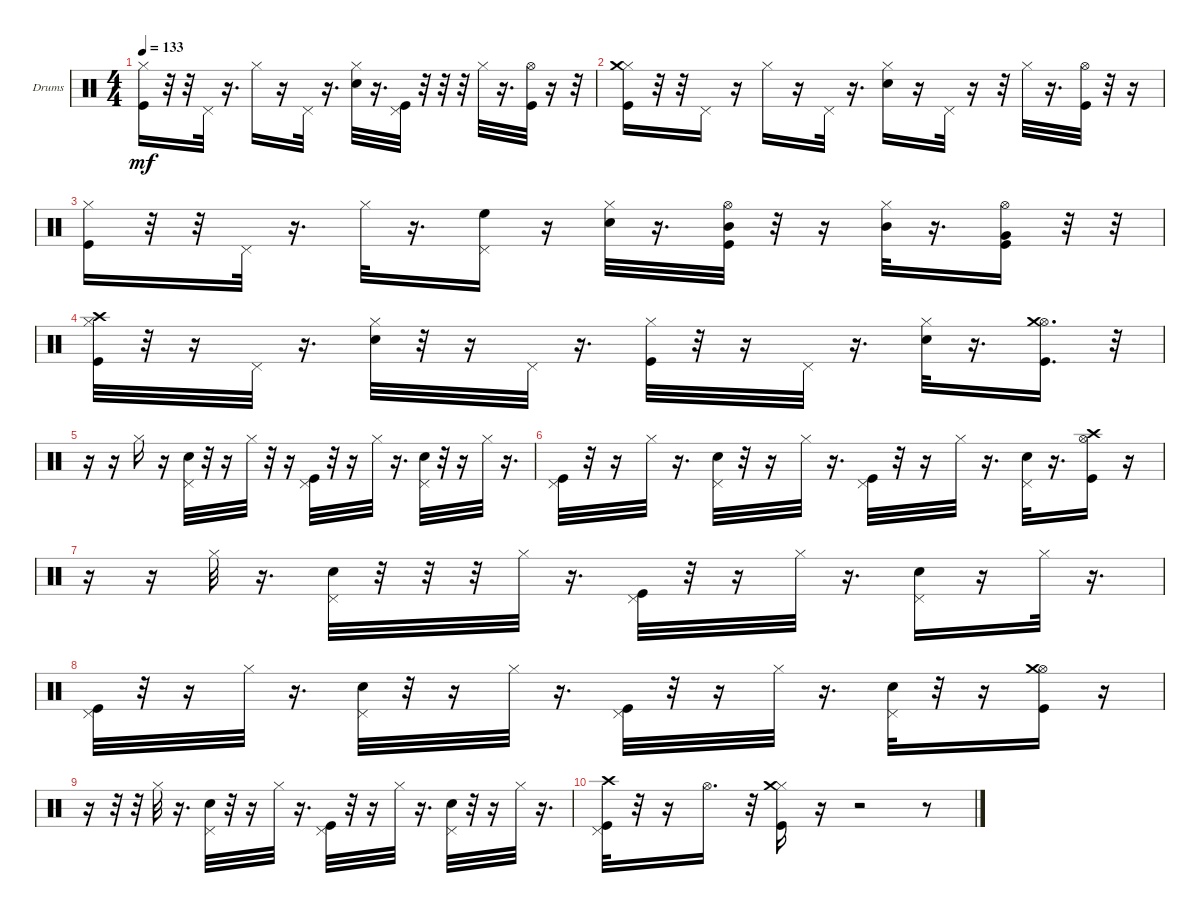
\defaultSystemsLayout 4
\bracketExtendMode groupsimilarinstruments
\firstSystemTrackNameOrientation horizontal
\otherSystemsTrackNameOrientation horizontal
\track ("Drumkit" "Drums") {instrument percussion}
\staff {score}
\articulation defaults
\ts (4 4)
\tempo 133
\clef neutral
\ks c
("Kick (hit)" "Hi-Hat (closed)").16{dy mf} r.32 r.32 "Pedal Hi-Hat (hit)".32 r.16{d} "Hi-Hat (closed)".16 r.16 "Pedal Hi-Hat (hit)".32 r.16{d} ("Snare (hit) 2" "Hi-Hat (closed)").32 r.16{d} ("Kick (hit)" "Pedal Hi-Hat (hit)").32 r.32 r.32 r.32 "Hi-Hat (closed)".32 r.16{d} ("Kick (hit)" "Hi-Hat (open)").32 r.16 r.32 |
("Kick (hit)" "Hi-Hat (closed)" "Crash medium (hit)").16 r.32 r.32 "Pedal Hi-Hat (hit)".16 r.16 "Hi-Hat (closed)".16 r.16 "Pedal Hi-Hat (hit)".32 r.16{d} ("Snare (hit) 2" "Hi-Hat (closed)").16 r.16 "Pedal Hi-Hat (hit)".32 r.16 r.32 "Hi-Hat (closed)".32 r.16{d} ("Kick (hit)" "Hi-Hat (open)").32 r.32 r.16 |
("Kick (hit)" "Hi-Hat (closed)").16 r.32 r.32 "Pedal Hi-Hat (hit)".32 r.16{d} "Hi-Hat (closed)".32 r.16{d} ("Pedal Hi-Hat (hit)" "High Floor Tom (hit)").16 r.16 ("Snare (hit) 2" "Hi-Hat (closed)").32 r.16{d} ("Kick (hit)" "Hi-Hat (open)" "Mid Tom (hit)").32 r.32 r.16 ("Hi-Hat (closed)" "Mid Tom (hit)").32 r.16{d} ("Kick (hit)" "Hi-Hat (open)" "Very Low Tom (hit)").16 r.32 r.32 |
("Kick (hit)" "Hi-Hat (closed)" "Crash high (hit)").32 r.32 r.16 "Pedal Hi-Hat (hit)".32 r.16{d} ("Snare (hit) 2" "Hi-Hat (closed)").32 r.32 r.16 "Pedal Hi-Hat (hit)".32 r.16{d} ("Kick (hit)" "Hi-Hat (closed)").32 r.32 r.16 "Pedal Hi-Hat (hit)".32 r.16{d} ("Snare (hit) 2" "Hi-Hat (closed)").32 r.16{d} ("Kick (hit)" "Hi-Hat (open)" "Crash medium (hit)").16{d} r.32 |
r.16 r.16 "Hi-Hat (closed)".16 r.16 ("Snare (hit) 2" "Pedal Hi-Hat (hit)").32 r.32 r.16 "Hi-Hat (closed)".32 r.32 r.16 ("Kick (hit)" "Pedal Hi-Hat (hit)").32 r.32 r.16 "Hi-Hat (closed)".32 r.16{d} ("Snare (hit) 2" "Pedal Hi-Hat (hit)").32 r.32 r.16 "Hi-Hat (closed)".32 r.16{d} |
("Kick (hit)" "Pedal Hi-Hat (hit)").32 r.32 r.16 "Hi-Hat (closed)".32 r.16{d} ("Snare (hit) 2" "Pedal Hi-Hat (hit)").32 r.32 r.16 "Hi-Hat (closed)".32 r.16{d} ("Kick (hit)" "Pedal Hi-Hat (hit)").32 r.32 r.16 "Hi-Hat (closed)".32 r.16{d} ("Snare (hit) 2" "Pedal Hi-Hat (hit)").32 r.16{d} ("Kick (hit)" "Hi-Hat (open)" "Crash high (hit)").16 r.16 |
r.16 r.16 "Hi-Hat (closed)".32 r.16{d} ("Snare (hit) 2" "Pedal Hi-Hat (hit)").32 r.32 r.32 r.32 "Hi-Hat (closed)".32 r.16{d} ("Kick (hit)" "Pedal Hi-Hat (hit)").32 r.32 r.16 "Hi-Hat (closed)".32 r.16{d} ("Snare (hit) 2" "Pedal Hi-Hat (hit)").16 r.16 "Hi-Hat (closed)".32 r.16{d} |
("Kick (hit)" "Pedal Hi-Hat (hit)").32 r.32 r.16 "Hi-Hat (closed)".32 r.16{d} ("Snare (hit) 2" "Pedal Hi-Hat (hit)").32 r.32 r.16 "Hi-Hat (closed)".32 r.16{d} ("Kick (hit)" "Pedal Hi-Hat (hit)").32 r.32 r.16 "Hi-Hat (closed)".32 r.16{d} ("Snare (hit) 2" "Pedal Hi-Hat (hit)").32 r.32 r.16 ("Kick (hit)" "Hi-Hat (open)" "Crash medium (hit)").16 r.16 |
r.16 r.32 r.32 "Hi-Hat (closed)".32 r.16{d} ("Snare (hit) 2" "Pedal Hi-Hat (hit)").32 r.32 r.16 "Hi-Hat (closed)".32 r.16{d} ("Kick (hit)" "Pedal Hi-Hat (hit)").32 r.32 r.16 "Hi-Hat (closed)".32 r.16{d} ("Snare (hit) 2" "Pedal Hi-Hat (hit)").32 r.32 r.16 "Hi-Hat (closed)".32 r.16{d} |
("Kick (hit)" "Pedal Hi-Hat (hit)" "Crash high (hit)").32 r.32 r.16 "Hi-Hat (open)".16{d} r.32 ("Kick (hit)" "Hi-Hat (closed)" "Crash medium (hit)").16 r.16 r.2 r.8
